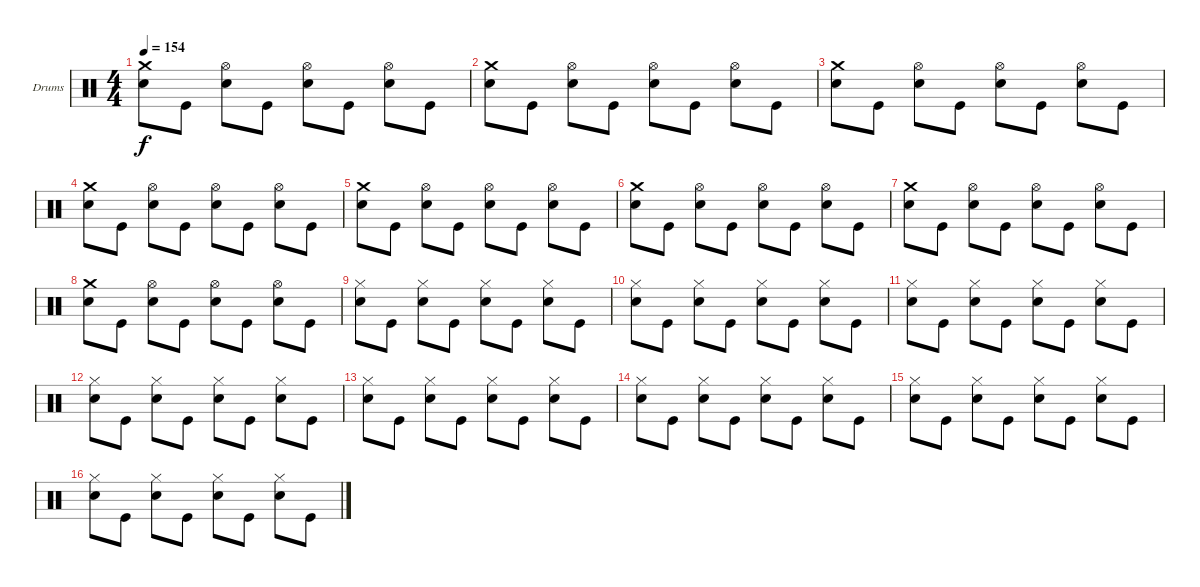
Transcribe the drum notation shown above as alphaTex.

\defaultSystemsLayout 4
\bracketExtendMode groupsimilarinstruments
\firstSystemTrackNameOrientation horizontal
\otherSystemsTrackNameOrientation horizontal
\track ("Drumkit" "Drums") {instrument percussion}
\staff {score}
\articulation defaults
\ts (4 4)
\tempo 154
\clef neutral
\ks c
("Crash medium (hit)" "Snare (hit) 2").8{dy f} "Kick (hit)".8 ("Hi-Hat (open)" "Snare (hit) 2").8 "Kick (hit)".8 ("Hi-Hat (open)" "Snare (hit) 2").8 "Kick (hit)".8 ("Hi-Hat (open)" "Snare (hit) 2").8 "Kick (hit)".8 |
("Crash medium (hit)" "Snare (hit) 2").8 "Kick (hit)".8 ("Hi-Hat (open)" "Snare (hit) 2").8 "Kick (hit)".8 ("Hi-Hat (open)" "Snare (hit) 2").8 "Kick (hit)".8 ("Hi-Hat (open)" "Snare (hit) 2").8 "Kick (hit)".8 |
("Crash medium (hit)" "Snare (hit) 2").8 "Kick (hit)".8 ("Hi-Hat (open)" "Snare (hit) 2").8 "Kick (hit)".8 ("Hi-Hat (open)" "Snare (hit) 2").8 "Kick (hit)".8 ("Hi-Hat (open)" "Snare (hit) 2").8 "Kick (hit)".8 |
("Crash medium (hit)" "Snare (hit) 2").8 "Kick (hit)".8 ("Hi-Hat (open)" "Snare (hit) 2").8 "Kick (hit)".8 ("Hi-Hat (open)" "Snare (hit) 2").8 "Kick (hit)".8 ("Hi-Hat (open)" "Snare (hit) 2").8 "Kick (hit)".8 |
("Crash medium (hit)" "Snare (hit) 2").8 "Kick (hit)".8 ("Hi-Hat (open)" "Snare (hit) 2").8 "Kick (hit)".8 ("Hi-Hat (open)" "Snare (hit) 2").8 "Kick (hit)".8 ("Hi-Hat (open)" "Snare (hit) 2").8 "Kick (hit)".8 |
("Crash medium (hit)" "Snare (hit) 2").8 "Kick (hit)".8 ("Hi-Hat (open)" "Snare (hit) 2").8 "Kick (hit)".8 ("Hi-Hat (open)" "Snare (hit) 2").8 "Kick (hit)".8 ("Hi-Hat (open)" "Snare (hit) 2").8 "Kick (hit)".8 |
("Crash medium (hit)" "Snare (hit) 2").8 "Kick (hit)".8 ("Hi-Hat (open)" "Snare (hit) 2").8 "Kick (hit)".8 ("Hi-Hat (open)" "Snare (hit) 2").8 "Kick (hit)".8 ("Hi-Hat (open)" "Snare (hit) 2").8 "Kick (hit)".8 |
("Crash medium (hit)" "Snare (hit) 2").8 "Kick (hit)".8 ("Hi-Hat (open)" "Snare (hit) 2").8 "Kick (hit)".8 ("Hi-Hat (open)" "Snare (hit) 2").8 "Kick (hit)".8 ("Hi-Hat (open)" "Snare (hit) 2").8 "Kick (hit)".8 |
("Hi-Hat (closed)" "Snare (hit) 2").8 "Kick (hit)".8 ("Hi-Hat (closed)" "Snare (hit) 2").8 "Kick (hit)".8 ("Hi-Hat (closed)" "Snare (hit) 2").8 "Kick (hit)".8 ("Hi-Hat (closed)" "Snare (hit) 2").8 "Kick (hit)".8 |
("Hi-Hat (closed)" "Snare (hit) 2").8 "Kick (hit)".8 ("Hi-Hat (closed)" "Snare (hit) 2").8 "Kick (hit)".8 ("Hi-Hat (closed)" "Snare (hit) 2").8 "Kick (hit)".8 ("Hi-Hat (closed)" "Snare (hit) 2").8 "Kick (hit)".8 |
("Hi-Hat (closed)" "Snare (hit) 2").8 "Kick (hit)".8 ("Hi-Hat (closed)" "Snare (hit) 2").8 "Kick (hit)".8 ("Hi-Hat (closed)" "Snare (hit) 2").8 "Kick (hit)".8 ("Hi-Hat (closed)" "Snare (hit) 2").8 "Kick (hit)".8 |
("Hi-Hat (closed)" "Snare (hit) 2").8 "Kick (hit)".8 ("Hi-Hat (closed)" "Snare (hit) 2").8 "Kick (hit)".8 ("Hi-Hat (closed)" "Snare (hit) 2").8 "Kick (hit)".8 ("Hi-Hat (closed)" "Snare (hit) 2").8 "Kick (hit)".8 |
("Hi-Hat (closed)" "Snare (hit) 2").8 "Kick (hit)".8 ("Hi-Hat (closed)" "Snare (hit) 2").8 "Kick (hit)".8 ("Hi-Hat (closed)" "Snare (hit) 2").8 "Kick (hit)".8 ("Hi-Hat (closed)" "Snare (hit) 2").8 "Kick (hit)".8 |
("Hi-Hat (closed)" "Snare (hit) 2").8 "Kick (hit)".8 ("Hi-Hat (closed)" "Snare (hit) 2").8 "Kick (hit)".8 ("Hi-Hat (closed)" "Snare (hit) 2").8 "Kick (hit)".8 ("Hi-Hat (closed)" "Snare (hit) 2").8 "Kick (hit)".8 |
("Hi-Hat (closed)" "Snare (hit) 2").8 "Kick (hit)".8 ("Hi-Hat (closed)" "Snare (hit) 2").8 "Kick (hit)".8 ("Hi-Hat (closed)" "Snare (hit) 2").8 "Kick (hit)".8 ("Hi-Hat (closed)" "Snare (hit) 2").8 "Kick (hit)".8 |
("Hi-Hat (closed)" "Snare (hit) 2").8 "Kick (hit)".8 ("Hi-Hat (closed)" "Snare (hit) 2").8 "Kick (hit)".8 ("Hi-Hat (closed)" "Snare (hit) 2").8 "Kick (hit)".8 ("Hi-Hat (closed)" "Snare (hit) 2").8 "Kick (hit)".8
